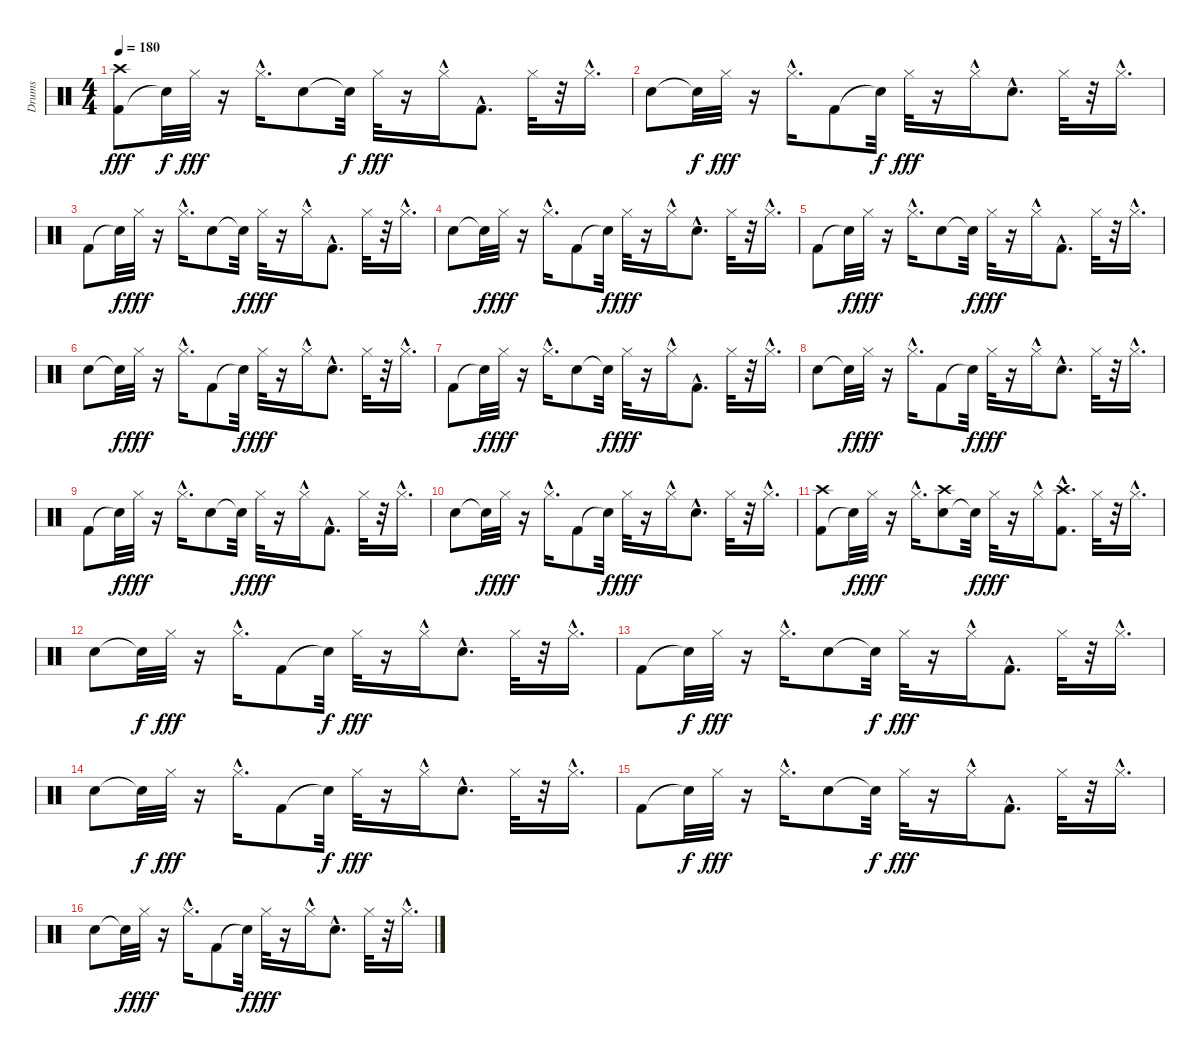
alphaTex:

\track ("Drums" "Drums") {instrument percussion}
\staff {score}
\articulation defaults
\ts (4 4)
\tempo 180
\clef neutral
\ks c
("Kick (hit) 2" "Crash high (hit)").8{dy fff} "Snare (hit)"{t}.32{dy f} "Hi-Hat (closed)".32{dy fff} r.16 "Hi-Hat (closed)"{hac}.16{d} "Snare (hit) 2".8 "Snare (hit)"{t}.32{dy f} "Hi-Hat (closed)".32{dy fff} r.16 "Hi-Hat (closed)"{hac}.16 "Kick (hit) 2"{hac}.8{d} "Hi-Hat (closed)".32 r.32 "Hi-Hat (closed)"{hac}.16{d} |
"Snare (hit) 2".8 "Snare (hit)"{t}.32{dy f} "Hi-Hat (closed)".32{dy fff} r.16 "Hi-Hat (closed)"{hac}.16{d} "Kick (hit) 2".8 "Snare (hit)"{t}.32{dy f} "Hi-Hat (closed)".32{dy fff} r.16 "Hi-Hat (closed)"{hac}.16 "Snare (hit) 2"{hac}.8{d} "Hi-Hat (closed)".32 r.32 "Hi-Hat (closed)"{hac}.16{d} |
"Kick (hit) 2".8 "Snare (hit)"{t}.32{dy f} "Hi-Hat (closed)".32{dy fff} r.16 "Hi-Hat (closed)"{hac}.16{d} "Snare (hit) 2".8 "Snare (hit)"{t}.32{dy f} "Hi-Hat (closed)".32{dy fff} r.16 "Hi-Hat (closed)"{hac}.16 "Kick (hit) 2"{hac}.8{d} "Hi-Hat (closed)".32 r.32 "Hi-Hat (closed)"{hac}.16{d} |
"Snare (hit) 2".8 "Snare (hit)"{t}.32{dy f} "Hi-Hat (closed)".32{dy fff} r.16 "Hi-Hat (closed)"{hac}.16{d} "Kick (hit) 2".8 "Snare (hit)"{t}.32{dy f} "Hi-Hat (closed)".32{dy fff} r.16 "Hi-Hat (closed)"{hac}.16 "Snare (hit) 2"{hac}.8{d} "Hi-Hat (closed)".32 r.32 "Hi-Hat (closed)"{hac}.16{d} |
"Kick (hit) 2".8 "Snare (hit)"{t}.32{dy f} "Hi-Hat (closed)".32{dy fff} r.16 "Hi-Hat (closed)"{hac}.16{d} "Snare (hit) 2".8 "Snare (hit)"{t}.32{dy f} "Hi-Hat (closed)".32{dy fff} r.16 "Hi-Hat (closed)"{hac}.16 "Kick (hit) 2"{hac}.8{d} "Hi-Hat (closed)".32 r.32 "Hi-Hat (closed)"{hac}.16{d} |
"Snare (hit) 2".8 "Snare (hit)"{t}.32{dy f} "Hi-Hat (closed)".32{dy fff} r.16 "Hi-Hat (closed)"{hac}.16{d} "Kick (hit) 2".8 "Snare (hit)"{t}.32{dy f} "Hi-Hat (closed)".32{dy fff} r.16 "Hi-Hat (closed)"{hac}.16 "Snare (hit) 2"{hac}.8{d} "Hi-Hat (closed)".32 r.32 "Hi-Hat (closed)"{hac}.16{d} |
"Kick (hit) 2".8 "Snare (hit)"{t}.32{dy f} "Hi-Hat (closed)".32{dy fff} r.16 "Hi-Hat (closed)"{hac}.16{d} "Snare (hit) 2".8 "Snare (hit)"{t}.32{dy f} "Hi-Hat (closed)".32{dy fff} r.16 "Hi-Hat (closed)"{hac}.16 "Kick (hit) 2"{hac}.8{d} "Hi-Hat (closed)".32 r.32 "Hi-Hat (closed)"{hac}.16{d} |
"Snare (hit) 2".8 "Snare (hit)"{t}.32{dy f} "Hi-Hat (closed)".32{dy fff} r.16 "Hi-Hat (closed)"{hac}.16{d} "Kick (hit) 2".8 "Snare (hit)"{t}.32{dy f} "Hi-Hat (closed)".32{dy fff} r.16 "Hi-Hat (closed)"{hac}.16 "Snare (hit) 2"{hac}.8{d} "Hi-Hat (closed)".32 r.32 "Hi-Hat (closed)"{hac}.16{d} |
"Kick (hit) 2".8 "Snare (hit)"{t}.32{dy f} "Hi-Hat (closed)".32{dy fff} r.16 "Hi-Hat (closed)"{hac}.16{d} "Snare (hit) 2".8 "Snare (hit)"{t}.32{dy f} "Hi-Hat (closed)".32{dy fff} r.16 "Hi-Hat (closed)"{hac}.16 "Kick (hit) 2"{hac}.8{d} "Hi-Hat (closed)".32 r.32 "Hi-Hat (closed)"{hac}.16{d} |
"Snare (hit) 2".8 "Snare (hit)"{t}.32{dy f} "Hi-Hat (closed)".32{dy fff} r.16 "Hi-Hat (closed)"{hac}.16{d} "Kick (hit) 2".8 "Snare (hit)"{t}.32{dy f} "Hi-Hat (closed)".32{dy fff} r.16 "Hi-Hat (closed)"{hac}.16 "Snare (hit) 2"{hac}.8{d} "Hi-Hat (closed)".32 r.32 "Hi-Hat (closed)"{hac}.16{d} |
("Kick (hit) 2" "Crash high (hit)").8 "Snare (hit)"{t}.32{dy f} "Hi-Hat (closed)".32{dy fff} r.16 "Hi-Hat (closed)"{hac}.16{d} ("Snare (hit) 2" "Crash high (hit)").8 "Snare (hit)"{t}.32{dy f} "Hi-Hat (closed)".32{dy fff} r.16 "Hi-Hat (closed)"{hac}.16 ("Kick (hit) 2"{hac} "Crash high (hit)").8{d} "Hi-Hat (closed)".32 r.32 "Hi-Hat (closed)"{hac}.16{d} |
"Snare (hit) 2".8 "Snare (hit)"{t}.32{dy f} "Hi-Hat (closed)".32{dy fff} r.16 "Hi-Hat (closed)"{hac}.16{d} "Kick (hit) 2".8 "Snare (hit)"{t}.32{dy f} "Hi-Hat (closed)".32{dy fff} r.16 "Hi-Hat (closed)"{hac}.16 "Snare (hit) 2"{hac}.8{d} "Hi-Hat (closed)".32 r.32 "Hi-Hat (closed)"{hac}.16{d} |
"Kick (hit) 2".8 "Snare (hit)"{t}.32{dy f} "Hi-Hat (closed)".32{dy fff} r.16 "Hi-Hat (closed)"{hac}.16{d} "Snare (hit) 2".8 "Snare (hit)"{t}.32{dy f} "Hi-Hat (closed)".32{dy fff} r.16 "Hi-Hat (closed)"{hac}.16 "Kick (hit) 2"{hac}.8{d} "Hi-Hat (closed)".32 r.32 "Hi-Hat (closed)"{hac}.16{d} |
"Snare (hit) 2".8 "Snare (hit)"{t}.32{dy f} "Hi-Hat (closed)".32{dy fff} r.16 "Hi-Hat (closed)"{hac}.16{d} "Kick (hit) 2".8 "Snare (hit)"{t}.32{dy f} "Hi-Hat (closed)".32{dy fff} r.16 "Hi-Hat (closed)"{hac}.16 "Snare (hit) 2"{hac}.8{d} "Hi-Hat (closed)".32 r.32 "Hi-Hat (closed)"{hac}.16{d} |
"Kick (hit) 2".8 "Snare (hit)"{t}.32{dy f} "Hi-Hat (closed)".32{dy fff} r.16 "Hi-Hat (closed)"{hac}.16{d} "Snare (hit) 2".8 "Snare (hit)"{t}.32{dy f} "Hi-Hat (closed)".32{dy fff} r.16 "Hi-Hat (closed)"{hac}.16 "Kick (hit) 2"{hac}.8{d} "Hi-Hat (closed)".32 r.32 "Hi-Hat (closed)"{hac}.16{d} |
"Snare (hit) 2".8 "Snare (hit)"{t}.32{dy f} "Hi-Hat (closed)".32{dy fff} r.16 "Hi-Hat (closed)"{hac}.16{d} "Kick (hit) 2".8 "Snare (hit)"{t}.32{dy f} "Hi-Hat (closed)".32{dy fff} r.16 "Hi-Hat (closed)"{hac}.16 "Snare (hit) 2"{hac}.8{d} "Hi-Hat (closed)".32 r.32 "Hi-Hat (closed)"{hac}.16{d}
